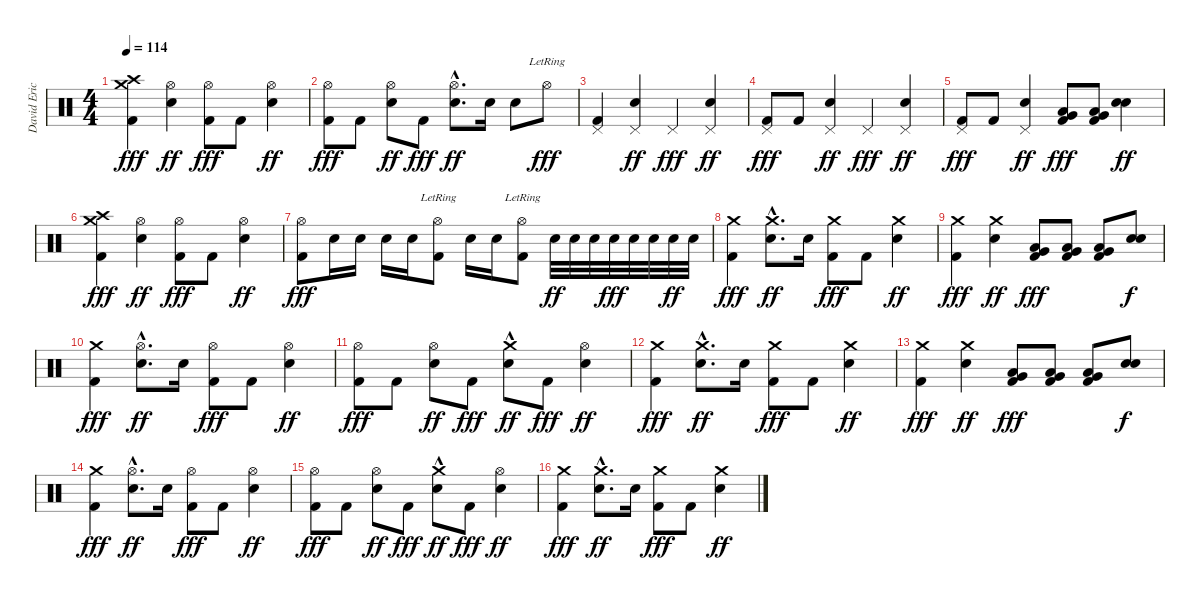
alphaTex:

\track ("David Eric Grohl" "David Eric") {instrument percussion}
\staff {score}
\articulation defaults
\ts (4 4)
\tempo 114
\clef neutral
\ks c
("Crash medium (hit)" "Crash high (hit)" "Kick (hit) 2").4{dy fff} ("Hi-Hat (open)" "Electric Snare (hit)").4{dy ff} ("Hi-Hat (open)" "Kick (hit) 2").8{dy fff} "Kick (hit) 2".8 ("Hi-Hat (open)" "Electric Snare (hit)").4{dy ff} |
("Hi-Hat (open)" "Kick (hit) 2").8{dy fff} "Kick (hit) 2".8 ("Hi-Hat (open)" "Electric Snare (hit)").8{dy ff} "Kick (hit) 2".8{dy fff} ("Hi-Hat (open)"{hac} "Electric Snare (hit)"{hac}).8{d dy ff} "Electric Snare (hit)".16 "Electric Snare (hit)".8 "Hi-Hat (open)"{lr}.8{dy fff} |
("Pedal Hi-Hat (hit)" "Kick (hit) 2").4 ("Pedal Hi-Hat (hit)" "Electric Snare (hit)").4{dy ff} "Pedal Hi-Hat (hit)".4{dy fff} ("Pedal Hi-Hat (hit)" "Electric Snare (hit)").4{dy ff} |
("Pedal Hi-Hat (hit)" "Kick (hit) 2").8{dy fff} "Kick (hit) 2".8 ("Pedal Hi-Hat (hit)" "Electric Snare (hit)").4{dy ff} "Pedal Hi-Hat (hit)".4{dy fff} ("Pedal Hi-Hat (hit)" "Electric Snare (hit)").4{dy ff} |
("Pedal Hi-Hat (hit)" "Kick (hit) 2").8{dy fff} "Kick (hit) 2".8 ("Pedal Hi-Hat (hit)" "Electric Snare (hit)").4{dy ff} ("Low Tom (hit)" "Very Low Tom (hit)" "Kick (hit) 2").8{dy fff} ("Low Tom (hit)" "Very Low Tom (hit)" "Kick (hit) 2").8 ("Electric Snare (hit)" "Electric Snare (hit)").4{dy ff} |
("Crash medium (hit)" "Crash high (hit)" "Kick (hit) 2").4{dy fff} ("Hi-Hat (open)" "Electric Snare (hit)").4{dy ff} ("Hi-Hat (open)" "Kick (hit) 2").8{dy fff} "Kick (hit) 2".8 ("Hi-Hat (open)" "Electric Snare (hit)").4{dy ff} |
("Hi-Hat (open)" "Kick (hit) 2").8{dy fff} "Electric Snare (hit)".16 "Electric Snare (hit)".16 "Electric Snare (hit)".16 "Electric Snare (hit)".16 ("Hi-Hat (open)"{lr} "Kick (hit) 2").8 "Electric Snare (hit)".16 "Electric Snare (hit)".16 ("Hi-Hat (open)"{lr} "Kick (hit) 2").8 "Electric Snare (hit)".32{dy ff} "Electric Snare (hit)".32 "Electric Snare (hit)".32 "Electric Snare (hit)".32{dy fff} "Electric Snare (hit)".32 "Electric Snare (hit)".32 "Electric Snare (hit)".32{dy ff} "Electric Snare (hit)".32 |
("Crash medium (hit)" "Kick (hit) 2").4{dy fff} ("Crash medium (hit)"{hac} "Electric Snare (hit)"{hac}).8{d dy ff} "Electric Snare (hit)".16 ("Crash medium (hit)" "Kick (hit) 2").8{dy fff} "Kick (hit) 2".8 ("Crash medium (hit)" "Electric Snare (hit)").4{dy ff} |
("Crash medium (hit)" "Kick (hit) 2").4{dy fff} ("Crash medium (hit)" "Electric Snare (hit)").4{dy ff} ("Low Tom (hit)" "Very Low Tom (hit)" "Kick (hit) 2").8{dy fff} ("Low Tom (hit)" "Very Low Tom (hit)" "Kick (hit) 2").8 ("Low Tom (hit)" "Very Low Tom (hit)" "Kick (hit) 2").8 ("Electric Snare (hit)" "Electric Snare (hit)").8{dy f} |
("Crash medium (hit)" "Kick (hit) 2").4{dy fff} ("Hi-Hat (open)"{hac} "Electric Snare (hit)"{hac}).8{d dy ff} "Electric Snare (hit)".16 ("Hi-Hat (open)" "Kick (hit) 2").8{dy fff} "Kick (hit) 2".8 ("Hi-Hat (open)" "Electric Snare (hit)").4{dy ff} |
("Hi-Hat (open)" "Kick (hit) 2").8{dy fff} "Kick (hit) 2".8 ("Hi-Hat (open)" "Electric Snare (hit)").8{dy ff} "Kick (hit) 2".8{dy fff} ("Crash medium (hit)"{hac} "Electric Snare (hit)").8{dy ff} "Kick (hit) 2".8{dy fff} ("Hi-Hat (open)" "Electric Snare (hit)").4{dy ff} |
("Crash medium (hit)" "Kick (hit) 2").4{dy fff} ("Crash medium (hit)"{hac} "Electric Snare (hit)"{hac}).8{d dy ff} "Electric Snare (hit)".16 ("Crash medium (hit)" "Kick (hit) 2").8{dy fff} "Kick (hit) 2".8 ("Crash medium (hit)" "Electric Snare (hit)").4{dy ff} |
("Crash medium (hit)" "Kick (hit) 2").4{dy fff} ("Crash medium (hit)" "Electric Snare (hit)").4{dy ff} ("Low Tom (hit)" "Very Low Tom (hit)" "Kick (hit) 2").8{dy fff} ("Low Tom (hit)" "Very Low Tom (hit)" "Kick (hit) 2").8 ("Low Tom (hit)" "Very Low Tom (hit)" "Kick (hit) 2").8 ("Electric Snare (hit)" "Electric Snare (hit)").8{dy f} |
("Crash medium (hit)" "Kick (hit) 2").4{dy fff} ("Hi-Hat (open)"{hac} "Electric Snare (hit)"{hac}).8{d dy ff} "Electric Snare (hit)".16 ("Hi-Hat (open)" "Kick (hit) 2").8{dy fff} "Kick (hit) 2".8 ("Hi-Hat (open)" "Electric Snare (hit)").4{dy ff} |
("Hi-Hat (open)" "Kick (hit) 2").8{dy fff} "Kick (hit) 2".8 ("Hi-Hat (open)" "Electric Snare (hit)").8{dy ff} "Kick (hit) 2".8{dy fff} ("Crash medium (hit)"{hac} "Electric Snare (hit)").8{dy ff} "Kick (hit) 2".8{dy fff} ("Hi-Hat (open)" "Electric Snare (hit)").4{dy ff} |
("Crash medium (hit)" "Kick (hit) 2").4{dy fff} ("Crash medium (hit)"{hac} "Electric Snare (hit)"{hac}).8{d dy ff} "Electric Snare (hit)".16 ("Crash medium (hit)" "Kick (hit) 2").8{dy fff} "Kick (hit) 2".8 ("Crash medium (hit)" "Electric Snare (hit)").4{dy ff}
